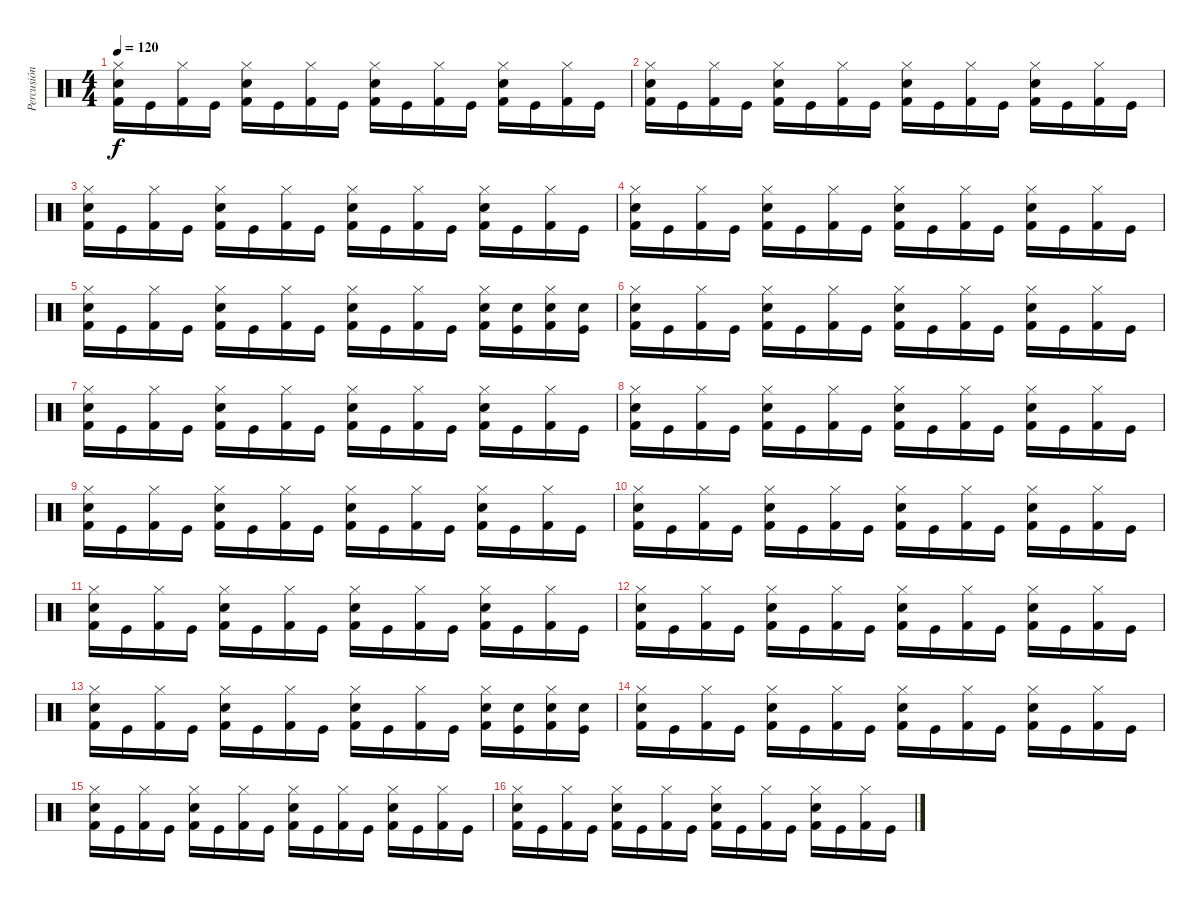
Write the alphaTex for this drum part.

\track ("Percusión" "Percusión") {instrument percussion}
\staff {score}
\articulation defaults
\ts (4 4)
\tempo 120
\clef neutral
\ks c
("Hi-Hat (closed)" "Snare (hit) 2" "Kick (hit) 2").16{dy f} "Kick (hit)".16 ("Hi-Hat (closed)" "Kick (hit) 2").16 "Kick (hit)".16 ("Hi-Hat (closed)" "Snare (hit) 2" "Kick (hit) 2").16 "Kick (hit)".16 ("Hi-Hat (closed)" "Kick (hit) 2").16 "Kick (hit)".16 ("Hi-Hat (closed)" "Snare (hit) 2" "Kick (hit) 2").16 "Kick (hit)".16 ("Hi-Hat (closed)" "Kick (hit) 2").16 "Kick (hit)".16 ("Hi-Hat (closed)" "Snare (hit) 2" "Kick (hit) 2").16 "Kick (hit)".16 ("Hi-Hat (closed)" "Kick (hit) 2").16 "Kick (hit)".16 |
("Hi-Hat (closed)" "Snare (hit) 2" "Kick (hit) 2").16 "Kick (hit)".16 ("Hi-Hat (closed)" "Kick (hit) 2").16 "Kick (hit)".16 ("Hi-Hat (closed)" "Snare (hit) 2" "Kick (hit) 2").16 "Kick (hit)".16 ("Hi-Hat (closed)" "Kick (hit) 2").16 "Kick (hit)".16 ("Hi-Hat (closed)" "Snare (hit) 2" "Kick (hit) 2").16 "Kick (hit)".16 ("Hi-Hat (closed)" "Kick (hit) 2").16 "Kick (hit)".16 ("Hi-Hat (closed)" "Snare (hit) 2" "Kick (hit) 2").16 "Kick (hit)".16 ("Hi-Hat (closed)" "Kick (hit) 2").16 "Kick (hit)".16 |
("Hi-Hat (closed)" "Snare (hit) 2" "Kick (hit) 2").16 "Kick (hit)".16 ("Hi-Hat (closed)" "Kick (hit) 2").16 "Kick (hit)".16 ("Hi-Hat (closed)" "Snare (hit) 2" "Kick (hit) 2").16 "Kick (hit)".16 ("Hi-Hat (closed)" "Kick (hit) 2").16 "Kick (hit)".16 ("Hi-Hat (closed)" "Snare (hit) 2" "Kick (hit) 2").16 "Kick (hit)".16 ("Hi-Hat (closed)" "Kick (hit) 2").16 "Kick (hit)".16 ("Hi-Hat (closed)" "Snare (hit) 2" "Kick (hit) 2").16 "Kick (hit)".16 ("Hi-Hat (closed)" "Kick (hit) 2").16 "Kick (hit)".16 |
("Hi-Hat (closed)" "Snare (hit) 2" "Kick (hit) 2").16 "Kick (hit)".16 ("Hi-Hat (closed)" "Kick (hit) 2").16 "Kick (hit)".16 ("Hi-Hat (closed)" "Snare (hit) 2" "Kick (hit) 2").16 "Kick (hit)".16 ("Hi-Hat (closed)" "Kick (hit) 2").16 "Kick (hit)".16 ("Hi-Hat (closed)" "Snare (hit) 2" "Kick (hit) 2").16 "Kick (hit)".16 ("Hi-Hat (closed)" "Kick (hit) 2").16 "Kick (hit)".16 ("Hi-Hat (closed)" "Snare (hit) 2" "Kick (hit) 2").16 "Kick (hit)".16 ("Hi-Hat (closed)" "Kick (hit) 2").16 "Kick (hit)".16 |
("Hi-Hat (closed)" "Snare (hit) 2" "Kick (hit) 2").16 "Kick (hit)".16 ("Hi-Hat (closed)" "Kick (hit) 2").16 "Kick (hit)".16 ("Hi-Hat (closed)" "Snare (hit) 2" "Kick (hit) 2").16 "Kick (hit)".16 ("Hi-Hat (closed)" "Kick (hit) 2").16 "Kick (hit)".16 ("Hi-Hat (closed)" "Snare (hit) 2" "Kick (hit) 2").16 "Kick (hit)".16 ("Hi-Hat (closed)" "Kick (hit) 2").16 "Kick (hit)".16 ("Hi-Hat (closed)" "Snare (hit) 2" "Kick (hit) 2").16 ("Snare (hit) 2" "Kick (hit)").16 ("Hi-Hat (closed)" "Snare (hit) 2" "Kick (hit) 2").16 ("Snare (hit) 2" "Kick (hit)").16 |
("Hi-Hat (closed)" "Snare (hit) 2" "Kick (hit) 2").16 "Kick (hit)".16 ("Hi-Hat (closed)" "Kick (hit) 2").16 "Kick (hit)".16 ("Hi-Hat (closed)" "Snare (hit) 2" "Kick (hit) 2").16 "Kick (hit)".16 ("Hi-Hat (closed)" "Kick (hit) 2").16 "Kick (hit)".16 ("Hi-Hat (closed)" "Snare (hit) 2" "Kick (hit) 2").16 "Kick (hit)".16 ("Hi-Hat (closed)" "Kick (hit) 2").16 "Kick (hit)".16 ("Hi-Hat (closed)" "Snare (hit) 2" "Kick (hit) 2").16 "Kick (hit)".16 ("Hi-Hat (closed)" "Kick (hit) 2").16 "Kick (hit)".16 |
("Hi-Hat (closed)" "Snare (hit) 2" "Kick (hit) 2").16 "Kick (hit)".16 ("Hi-Hat (closed)" "Kick (hit) 2").16 "Kick (hit)".16 ("Hi-Hat (closed)" "Snare (hit) 2" "Kick (hit) 2").16 "Kick (hit)".16 ("Hi-Hat (closed)" "Kick (hit) 2").16 "Kick (hit)".16 ("Hi-Hat (closed)" "Snare (hit) 2" "Kick (hit) 2").16 "Kick (hit)".16 ("Hi-Hat (closed)" "Kick (hit) 2").16 "Kick (hit)".16 ("Hi-Hat (closed)" "Snare (hit) 2" "Kick (hit) 2").16 "Kick (hit)".16 ("Hi-Hat (closed)" "Kick (hit) 2").16 "Kick (hit)".16 |
("Hi-Hat (closed)" "Snare (hit) 2" "Kick (hit) 2").16 "Kick (hit)".16 ("Hi-Hat (closed)" "Kick (hit) 2").16 "Kick (hit)".16 ("Hi-Hat (closed)" "Snare (hit) 2" "Kick (hit) 2").16 "Kick (hit)".16 ("Hi-Hat (closed)" "Kick (hit) 2").16 "Kick (hit)".16 ("Hi-Hat (closed)" "Snare (hit) 2" "Kick (hit) 2").16 "Kick (hit)".16 ("Hi-Hat (closed)" "Kick (hit) 2").16 "Kick (hit)".16 ("Hi-Hat (closed)" "Snare (hit) 2" "Kick (hit) 2").16 "Kick (hit)".16 ("Hi-Hat (closed)" "Kick (hit) 2").16 "Kick (hit)".16 |
("Hi-Hat (closed)" "Snare (hit) 2" "Kick (hit) 2").16 "Kick (hit)".16 ("Hi-Hat (closed)" "Kick (hit) 2").16 "Kick (hit)".16 ("Hi-Hat (closed)" "Snare (hit) 2" "Kick (hit) 2").16 "Kick (hit)".16 ("Hi-Hat (closed)" "Kick (hit) 2").16 "Kick (hit)".16 ("Hi-Hat (closed)" "Snare (hit) 2" "Kick (hit) 2").16 "Kick (hit)".16 ("Hi-Hat (closed)" "Kick (hit) 2").16 "Kick (hit)".16 ("Hi-Hat (closed)" "Snare (hit) 2" "Kick (hit) 2").16 "Kick (hit)".16 ("Hi-Hat (closed)" "Kick (hit) 2").16 "Kick (hit)".16 |
("Hi-Hat (closed)" "Snare (hit) 2" "Kick (hit) 2").16 "Kick (hit)".16 ("Hi-Hat (closed)" "Kick (hit) 2").16 "Kick (hit)".16 ("Hi-Hat (closed)" "Snare (hit) 2" "Kick (hit) 2").16 "Kick (hit)".16 ("Hi-Hat (closed)" "Kick (hit) 2").16 "Kick (hit)".16 ("Hi-Hat (closed)" "Snare (hit) 2" "Kick (hit) 2").16 "Kick (hit)".16 ("Hi-Hat (closed)" "Kick (hit) 2").16 "Kick (hit)".16 ("Hi-Hat (closed)" "Snare (hit) 2" "Kick (hit) 2").16 "Kick (hit)".16 ("Hi-Hat (closed)" "Kick (hit) 2").16 "Kick (hit)".16 |
("Hi-Hat (closed)" "Snare (hit) 2" "Kick (hit) 2").16 "Kick (hit)".16 ("Hi-Hat (closed)" "Kick (hit) 2").16 "Kick (hit)".16 ("Hi-Hat (closed)" "Snare (hit) 2" "Kick (hit) 2").16 "Kick (hit)".16 ("Hi-Hat (closed)" "Kick (hit) 2").16 "Kick (hit)".16 ("Hi-Hat (closed)" "Snare (hit) 2" "Kick (hit) 2").16 "Kick (hit)".16 ("Hi-Hat (closed)" "Kick (hit) 2").16 "Kick (hit)".16 ("Hi-Hat (closed)" "Snare (hit) 2" "Kick (hit) 2").16 "Kick (hit)".16 ("Hi-Hat (closed)" "Kick (hit) 2").16 "Kick (hit)".16 |
("Hi-Hat (closed)" "Snare (hit) 2" "Kick (hit) 2").16 "Kick (hit)".16 ("Hi-Hat (closed)" "Kick (hit) 2").16 "Kick (hit)".16 ("Hi-Hat (closed)" "Snare (hit) 2" "Kick (hit) 2").16 "Kick (hit)".16 ("Hi-Hat (closed)" "Kick (hit) 2").16 "Kick (hit)".16 ("Hi-Hat (closed)" "Snare (hit) 2" "Kick (hit) 2").16 "Kick (hit)".16 ("Hi-Hat (closed)" "Kick (hit) 2").16 "Kick (hit)".16 ("Hi-Hat (closed)" "Snare (hit) 2" "Kick (hit) 2").16 "Kick (hit)".16 ("Hi-Hat (closed)" "Kick (hit) 2").16 "Kick (hit)".16 |
("Hi-Hat (closed)" "Snare (hit) 2" "Kick (hit) 2").16 "Kick (hit)".16 ("Hi-Hat (closed)" "Kick (hit) 2").16 "Kick (hit)".16 ("Hi-Hat (closed)" "Snare (hit) 2" "Kick (hit) 2").16 "Kick (hit)".16 ("Hi-Hat (closed)" "Kick (hit) 2").16 "Kick (hit)".16 ("Hi-Hat (closed)" "Snare (hit) 2" "Kick (hit) 2").16 "Kick (hit)".16 ("Hi-Hat (closed)" "Kick (hit) 2").16 "Kick (hit)".16 ("Hi-Hat (closed)" "Snare (hit) 2" "Kick (hit) 2").16 ("Snare (hit) 2" "Kick (hit)").16 ("Hi-Hat (closed)" "Snare (hit) 2" "Kick (hit) 2").16 ("Snare (hit) 2" "Kick (hit)").16 |
("Hi-Hat (closed)" "Snare (hit) 2" "Kick (hit) 2").16 "Kick (hit)".16 ("Hi-Hat (closed)" "Kick (hit) 2").16 "Kick (hit)".16 ("Hi-Hat (closed)" "Snare (hit) 2" "Kick (hit) 2").16 "Kick (hit)".16 ("Hi-Hat (closed)" "Kick (hit) 2").16 "Kick (hit)".16 ("Hi-Hat (closed)" "Snare (hit) 2" "Kick (hit) 2").16 "Kick (hit)".16 ("Hi-Hat (closed)" "Kick (hit) 2").16 "Kick (hit)".16 ("Hi-Hat (closed)" "Snare (hit) 2" "Kick (hit) 2").16 "Kick (hit)".16 ("Hi-Hat (closed)" "Kick (hit) 2").16 "Kick (hit)".16 |
("Hi-Hat (closed)" "Snare (hit) 2" "Kick (hit) 2").16 "Kick (hit)".16 ("Hi-Hat (closed)" "Kick (hit) 2").16 "Kick (hit)".16 ("Hi-Hat (closed)" "Snare (hit) 2" "Kick (hit) 2").16 "Kick (hit)".16 ("Hi-Hat (closed)" "Kick (hit) 2").16 "Kick (hit)".16 ("Hi-Hat (closed)" "Snare (hit) 2" "Kick (hit) 2").16 "Kick (hit)".16 ("Hi-Hat (closed)" "Kick (hit) 2").16 "Kick (hit)".16 ("Hi-Hat (closed)" "Snare (hit) 2" "Kick (hit) 2").16 "Kick (hit)".16 ("Hi-Hat (closed)" "Kick (hit) 2").16 "Kick (hit)".16 |
("Hi-Hat (closed)" "Snare (hit) 2" "Kick (hit) 2").16 "Kick (hit)".16 ("Hi-Hat (closed)" "Kick (hit) 2").16 "Kick (hit)".16 ("Hi-Hat (closed)" "Snare (hit) 2" "Kick (hit) 2").16 "Kick (hit)".16 ("Hi-Hat (closed)" "Kick (hit) 2").16 "Kick (hit)".16 ("Hi-Hat (closed)" "Snare (hit) 2" "Kick (hit) 2").16 "Kick (hit)".16 ("Hi-Hat (closed)" "Kick (hit) 2").16 "Kick (hit)".16 ("Hi-Hat (closed)" "Snare (hit) 2" "Kick (hit) 2").16 "Kick (hit)".16 ("Hi-Hat (closed)" "Kick (hit) 2").16 "Kick (hit)".16
